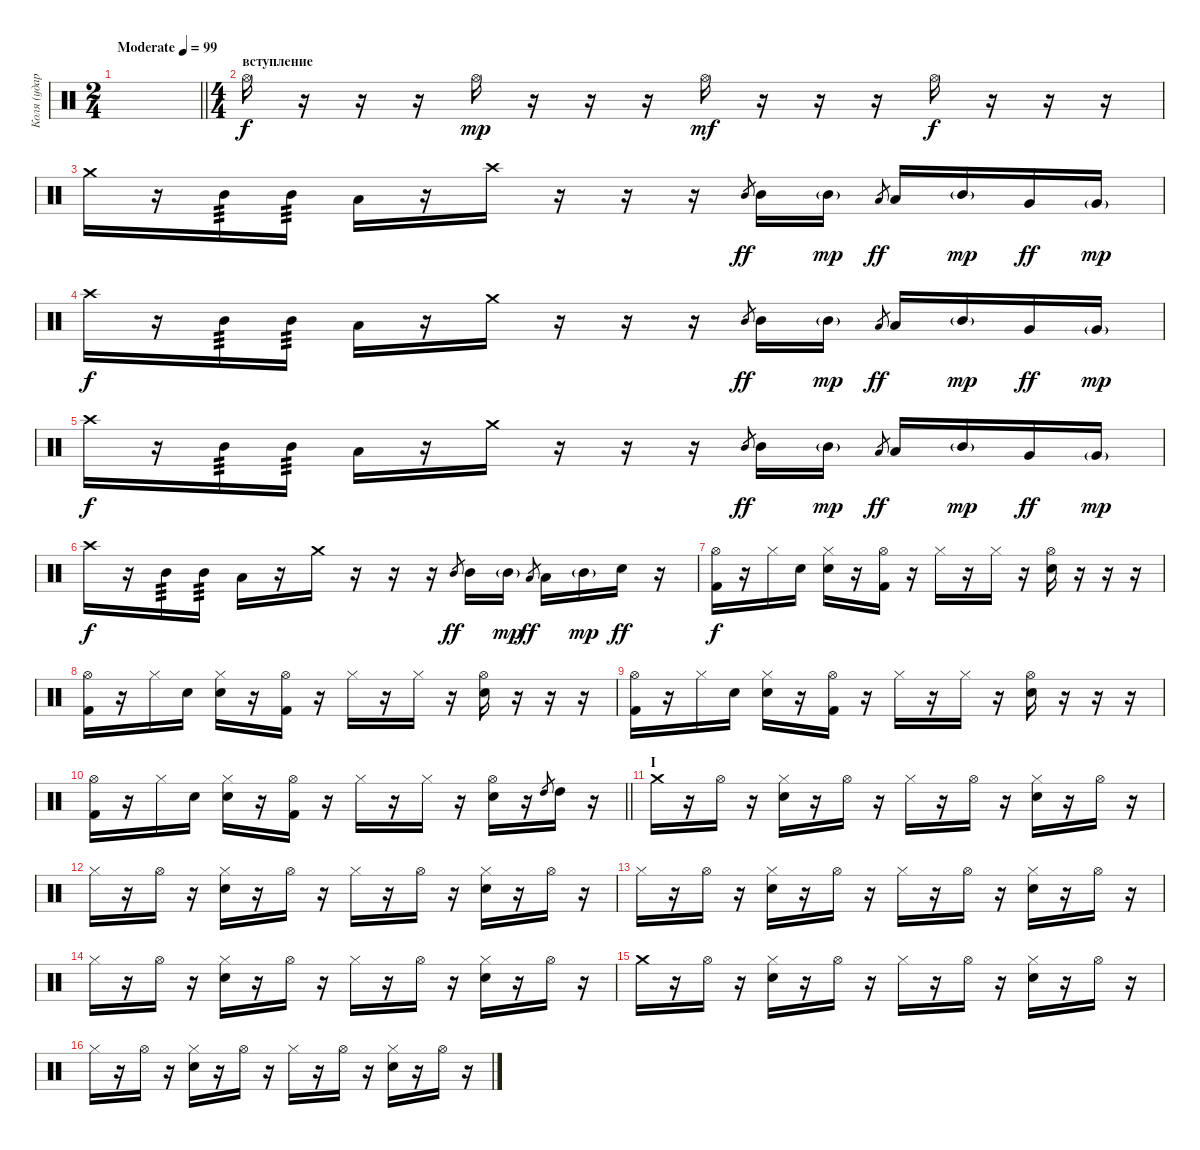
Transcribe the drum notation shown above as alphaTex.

\track ("Коля (ударные)" "Коля (удар") {instrument percussion}
\staff {score}
\articulation defaults
\ts (2 4)
\tempo (99 "Moderate")
\clef neutral
\barLineRight lightlight
\ks c
|
\ts (4 4)
\section ("" "вступление")
"Hi-Hat (open)".16 r.16 r.16 r.16 "Hi-Hat (open)".16{dy mp} r.16 r.16 r.16 "Hi-Hat (open)".16{dy mf} r.16 r.16 r.16 "Hi-Hat (open)".16{dy f} r.16 r.16 r.16 |
"Crash medium (hit)".16 r.16 "Mid Tom (hit)".16{tp 3} "Mid Tom (hit)".16{tp 3} "Low Tom (hit)".16 r.16 "Crash high (hit)".16 r.16 r.16 r.16 "Mid Tom (hit)".8{gr dy ff} "Mid Tom (hit)".16 "Mid Tom (hit)"{g}.16{dy mp} "Low Tom (hit)".8{gr dy ff} "Low Tom (hit)".16 "Mid Tom (hit)"{g}.16{dy mp} "Very Low Tom (hit)".16{dy ff} "Very Low Tom (hit)"{g}.16{dy mp} |
"Crash high (hit)".16{dy f} r.16 "Mid Tom (hit)".16{tp 3} "Mid Tom (hit)".16{tp 3} "Low Tom (hit)".16 r.16 "Crash medium (hit)".16 r.16 r.16 r.16 "Mid Tom (hit)".8{gr dy ff} "Mid Tom (hit)".16 "Mid Tom (hit)"{g}.16{dy mp} "Low Tom (hit)".8{gr dy ff} "Low Tom (hit)".16 "Mid Tom (hit)"{g}.16{dy mp} "Very Low Tom (hit)".16{dy ff} "Very Low Tom (hit)"{g}.16{dy mp} |
"Crash high (hit)".16{dy f} r.16 "Mid Tom (hit)".16{tp 3} "Mid Tom (hit)".16{tp 3} "Low Tom (hit)".16 r.16 "Crash medium (hit)".16 r.16 r.16 r.16 "Mid Tom (hit)".8{gr dy ff} "Mid Tom (hit)".16 "Mid Tom (hit)"{g}.16{dy mp} "Low Tom (hit)".8{gr dy ff} "Low Tom (hit)".16 "Mid Tom (hit)"{g}.16{dy mp} "Very Low Tom (hit)".16{dy ff} "Very Low Tom (hit)"{g}.16{dy mp} |
"Crash high (hit)".16{dy f} r.16 "Mid Tom (hit)".16{tp 3} "Mid Tom (hit)".16{tp 3} "Low Tom (hit)".16 r.16 "Crash medium (hit)".16 r.16 r.16 r.16 "Mid Tom (hit)".8{gr dy ff} "Mid Tom (hit)".16 "Mid Tom (hit)"{g}.16{dy mp} "Low Tom (hit)".8{gr dy ff} "Low Tom (hit)".16 "Mid Tom (hit)"{g}.16{dy mp} "Electric Snare (hit)".16{dy ff} r.16 |
("Kick (hit) 2" "Hi-Hat (open)").16{dy f} r.16 "Hi-Hat (closed)".16 "Electric Snare (hit)".16 ("Electric Snare (hit)" "Hi-Hat (closed)").16 r.16 ("Kick (hit) 2" "Hi-Hat (open)").16 r.16 "Hi-Hat (closed)".16 r.16 "Hi-Hat (closed)".16 r.16 ("Electric Snare (hit)" "Hi-Hat (open)").16 r.16 r.16 r.16 |
("Kick (hit) 2" "Hi-Hat (open)").16 r.16 "Hi-Hat (closed)".16 "Electric Snare (hit)".16 ("Electric Snare (hit)" "Hi-Hat (closed)").16 r.16 ("Kick (hit) 2" "Hi-Hat (open)").16 r.16 "Hi-Hat (closed)".16 r.16 "Hi-Hat (closed)".16 r.16 ("Electric Snare (hit)" "Hi-Hat (open)").16 r.16 r.16 r.16 |
("Kick (hit) 2" "Hi-Hat (open)").16 r.16 "Hi-Hat (closed)".16 "Electric Snare (hit)".16 ("Electric Snare (hit)" "Hi-Hat (closed)").16 r.16 ("Kick (hit) 2" "Hi-Hat (open)").16 r.16 "Hi-Hat (closed)".16 r.16 "Hi-Hat (closed)".16 r.16 ("Electric Snare (hit)" "Hi-Hat (open)").16 r.16 r.16 r.16 |
\barLineRight lightlight
("Kick (hit) 2" "Hi-Hat (open)").16 r.16 "Hi-Hat (closed)".16 "Electric Snare (hit)".16 ("Electric Snare (hit)" "Hi-Hat (closed)").16 r.16 ("Kick (hit) 2" "Hi-Hat (open)").16 r.16 "Hi-Hat (closed)".16 r.16 "Hi-Hat (closed)".16 r.16 ("Electric Snare (hit)" "Hi-Hat (open)").16 r.16 "High Tom (hit)".8{gr} "High Tom (hit)".16 r.16 |
\section ("" "I")
"Crash medium (hit)".16 r.16 "Hi-Hat (open)".16 r.16 ("Electric Snare (hit)" "Hi-Hat (closed)").16 r.16 "Hi-Hat (open)".16 r.16 "Hi-Hat (closed)".16 r.16 "Hi-Hat (open)".16 r.16 ("Electric Snare (hit)" "Hi-Hat (closed)").16 r.16 "Hi-Hat (open)".16 r.16 |
"Hi-Hat (closed)".16 r.16 "Hi-Hat (open)".16 r.16 ("Electric Snare (hit)" "Hi-Hat (closed)").16 r.16 "Hi-Hat (open)".16 r.16 "Hi-Hat (closed)".16 r.16 "Hi-Hat (open)".16 r.16 ("Electric Snare (hit)" "Hi-Hat (closed)").16 r.16 "Hi-Hat (open)".16 r.16 |
"Hi-Hat (closed)".16 r.16 "Hi-Hat (open)".16 r.16 ("Electric Snare (hit)" "Hi-Hat (closed)").16 r.16 "Hi-Hat (open)".16 r.16 "Hi-Hat (closed)".16 r.16 "Hi-Hat (open)".16 r.16 ("Electric Snare (hit)" "Hi-Hat (closed)").16 r.16 "Hi-Hat (open)".16 r.16 |
"Hi-Hat (closed)".16 r.16 "Hi-Hat (open)".16 r.16 ("Electric Snare (hit)" "Hi-Hat (closed)").16 r.16 "Hi-Hat (open)".16 r.16 "Hi-Hat (closed)".16 r.16 "Hi-Hat (open)".16 r.16 ("Electric Snare (hit)" "Hi-Hat (closed)").16 r.16 "Hi-Hat (open)".16 r.16 |
"Crash medium (hit)".16 r.16 "Hi-Hat (open)".16 r.16 ("Electric Snare (hit)" "Hi-Hat (closed)").16 r.16 "Hi-Hat (open)".16 r.16 "Hi-Hat (closed)".16 r.16 "Hi-Hat (open)".16 r.16 ("Electric Snare (hit)" "Hi-Hat (closed)").16 r.16 "Hi-Hat (open)".16 r.16 |
"Hi-Hat (closed)".16 r.16 "Hi-Hat (open)".16 r.16 ("Electric Snare (hit)" "Hi-Hat (closed)").16 r.16 "Hi-Hat (open)".16 r.16 "Hi-Hat (closed)".16 r.16 "Hi-Hat (open)".16 r.16 ("Electric Snare (hit)" "Hi-Hat (closed)").16 r.16 "Hi-Hat (open)".16 r.16
